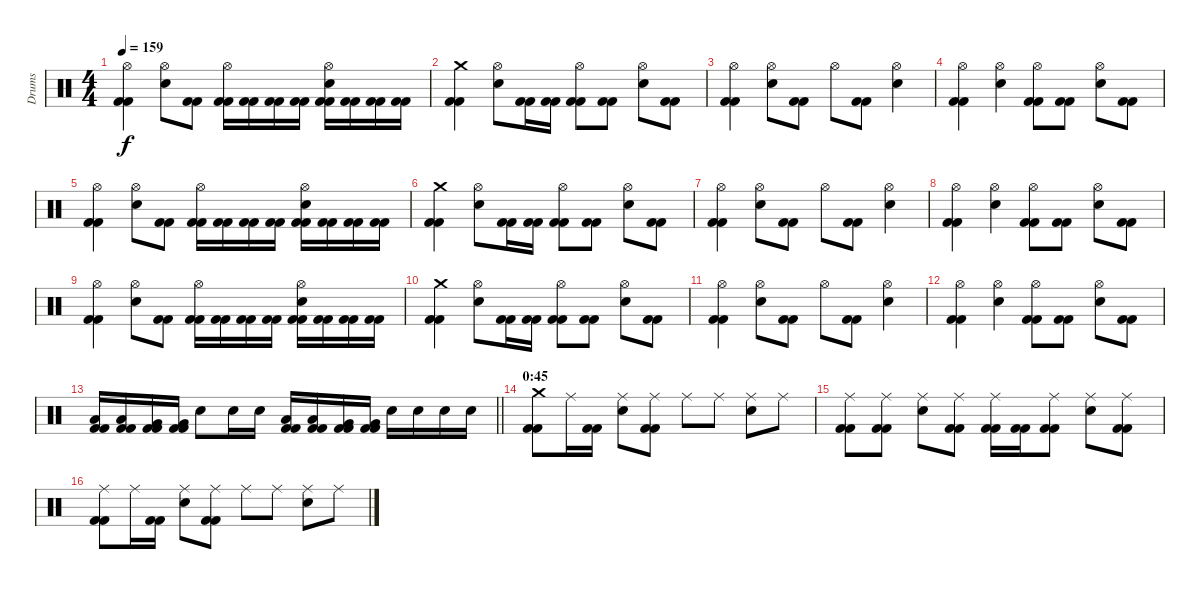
\track ("Drums" "Drums") {instrument percussion}
\staff {score}
\articulation defaults
\ts (4 4)
\tempo 159
\clef neutral
\ks c
("Hi-Hat (open)" "Kick (hit) 2" "Kick (hit) 2").4{dy f} ("Hi-Hat (open)" "Electric Snare (hit)").8 ("Kick (hit) 2" "Kick (hit) 2").8 ("Hi-Hat (open)" "Kick (hit) 2" "Kick (hit) 2").16 ("Kick (hit) 2" "Kick (hit) 2").16 ("Kick (hit) 2" "Kick (hit) 2").16 ("Kick (hit) 2" "Kick (hit) 2").16 ("Hi-Hat (open)" "Electric Snare (hit)" "Kick (hit) 2" "Kick (hit) 2").16 ("Kick (hit) 2" "Kick (hit) 2").16 ("Kick (hit) 2" "Kick (hit) 2").16 ("Kick (hit) 2" "Kick (hit) 2").16 |
("Crash medium (hit)" "Kick (hit) 2" "Kick (hit) 2").4 ("Hi-Hat (open)" "Electric Snare (hit)").8 ("Kick (hit) 2" "Kick (hit) 2").16 ("Kick (hit) 2" "Kick (hit) 2").16 ("Hi-Hat (open)" "Kick (hit) 2" "Kick (hit) 2").8 ("Kick (hit) 2" "Kick (hit) 2").8 ("Hi-Hat (open)" "Electric Snare (hit)").8 ("Kick (hit) 2" "Kick (hit) 2").8 |
("Hi-Hat (open)" "Kick (hit) 2" "Kick (hit) 2").4 ("Hi-Hat (open)" "Electric Snare (hit)").8 ("Kick (hit) 2" "Kick (hit) 2").8 "Hi-Hat (open)".8 ("Kick (hit) 2" "Kick (hit) 2").8 ("Hi-Hat (open)" "Electric Snare (hit)").4 |
("Hi-Hat (open)" "Kick (hit) 2" "Kick (hit) 2").4 ("Hi-Hat (open)" "Electric Snare (hit)").4 ("Hi-Hat (open)" "Kick (hit) 2" "Kick (hit) 2").8 ("Kick (hit) 2" "Kick (hit) 2").8 ("Hi-Hat (open)" "Electric Snare (hit)").8 ("Kick (hit) 2" "Kick (hit) 2").8 |
("Hi-Hat (open)" "Kick (hit) 2" "Kick (hit) 2").4 ("Hi-Hat (open)" "Electric Snare (hit)").8 ("Kick (hit) 2" "Kick (hit) 2").8 ("Hi-Hat (open)" "Kick (hit) 2" "Kick (hit) 2").16 ("Kick (hit) 2" "Kick (hit) 2").16 ("Kick (hit) 2" "Kick (hit) 2").16 ("Kick (hit) 2" "Kick (hit) 2").16 ("Hi-Hat (open)" "Electric Snare (hit)" "Kick (hit) 2" "Kick (hit) 2").16 ("Kick (hit) 2" "Kick (hit) 2").16 ("Kick (hit) 2" "Kick (hit) 2").16 ("Kick (hit) 2" "Kick (hit) 2").16 |
("Crash medium (hit)" "Kick (hit) 2" "Kick (hit) 2").4 ("Hi-Hat (open)" "Electric Snare (hit)").8 ("Kick (hit) 2" "Kick (hit) 2").16 ("Kick (hit) 2" "Kick (hit) 2").16 ("Hi-Hat (open)" "Kick (hit) 2" "Kick (hit) 2").8 ("Kick (hit) 2" "Kick (hit) 2").8 ("Hi-Hat (open)" "Electric Snare (hit)").8 ("Kick (hit) 2" "Kick (hit) 2").8 |
("Hi-Hat (open)" "Kick (hit) 2" "Kick (hit) 2").4 ("Hi-Hat (open)" "Electric Snare (hit)").8 ("Kick (hit) 2" "Kick (hit) 2").8 "Hi-Hat (open)".8 ("Kick (hit) 2" "Kick (hit) 2").8 ("Hi-Hat (open)" "Electric Snare (hit)").4 |
("Hi-Hat (open)" "Kick (hit) 2" "Kick (hit) 2").4 ("Hi-Hat (open)" "Electric Snare (hit)").4 ("Hi-Hat (open)" "Kick (hit) 2" "Kick (hit) 2").8 ("Kick (hit) 2" "Kick (hit) 2").8 ("Hi-Hat (open)" "Electric Snare (hit)").8 ("Kick (hit) 2" "Kick (hit) 2").8 |
("Hi-Hat (open)" "Kick (hit) 2" "Kick (hit) 2").4 ("Hi-Hat (open)" "Electric Snare (hit)").8 ("Kick (hit) 2" "Kick (hit) 2").8 ("Hi-Hat (open)" "Kick (hit) 2" "Kick (hit) 2").16 ("Kick (hit) 2" "Kick (hit) 2").16 ("Kick (hit) 2" "Kick (hit) 2").16 ("Kick (hit) 2" "Kick (hit) 2").16 ("Hi-Hat (open)" "Electric Snare (hit)" "Kick (hit) 2" "Kick (hit) 2").16 ("Kick (hit) 2" "Kick (hit) 2").16 ("Kick (hit) 2" "Kick (hit) 2").16 ("Kick (hit) 2" "Kick (hit) 2").16 |
("Crash medium (hit)" "Kick (hit) 2" "Kick (hit) 2").4 ("Hi-Hat (open)" "Electric Snare (hit)").8 ("Kick (hit) 2" "Kick (hit) 2").16 ("Kick (hit) 2" "Kick (hit) 2").16 ("Hi-Hat (open)" "Kick (hit) 2" "Kick (hit) 2").8 ("Kick (hit) 2" "Kick (hit) 2").8 ("Hi-Hat (open)" "Electric Snare (hit)").8 ("Kick (hit) 2" "Kick (hit) 2").8 |
("Hi-Hat (open)" "Kick (hit) 2" "Kick (hit) 2").4 ("Hi-Hat (open)" "Electric Snare (hit)").8 ("Kick (hit) 2" "Kick (hit) 2").8 "Hi-Hat (open)".8 ("Kick (hit) 2" "Kick (hit) 2").8 ("Hi-Hat (open)" "Electric Snare (hit)").4 |
("Hi-Hat (open)" "Kick (hit) 2" "Kick (hit) 2").4 ("Hi-Hat (open)" "Electric Snare (hit)").4 ("Hi-Hat (open)" "Kick (hit) 2" "Kick (hit) 2").8 ("Kick (hit) 2" "Kick (hit) 2").8 ("Hi-Hat (open)" "Electric Snare (hit)").8 ("Kick (hit) 2" "Kick (hit) 2").8 |
\barLineRight lightlight
("Low Tom (hit)" "Kick (hit) 2" "Kick (hit) 2").16 ("Low Tom (hit)" "Kick (hit) 2" "Kick (hit) 2").16 ("Very Low Tom (hit)" "Kick (hit) 2" "Kick (hit) 2").16 ("Very Low Tom (hit)" "Kick (hit) 2" "Kick (hit) 2").16 "Electric Snare (hit)".8 "Electric Snare (hit)".16 "Electric Snare (hit)".16 ("Low Tom (hit)" "Kick (hit) 2" "Kick (hit) 2").16 ("Low Tom (hit)" "Kick (hit) 2" "Kick (hit) 2").16 ("Very Low Tom (hit)" "Kick (hit) 2" "Kick (hit) 2").16 ("Very Low Tom (hit)" "Kick (hit) 2" "Kick (hit) 2").16 "Electric Snare (hit)".16 "Electric Snare (hit)".16 "Electric Snare (hit)".16 "Electric Snare (hit)".16 |
\section ("" "0:45")
("Crash medium (hit)" "Kick (hit) 2" "Kick (hit) 2").8 "Ride (middle)".16 ("Kick (hit) 2" "Kick (hit) 2").16 ("Ride (middle)" "Electric Snare (hit)").8 ("Ride (middle)" "Kick (hit) 2" "Kick (hit) 2").8 "Ride (middle)".8 "Ride (middle)".8 ("Ride (middle)" "Electric Snare (hit)").8 "Ride (middle)".8 |
("Ride (middle)" "Kick (hit) 2" "Kick (hit) 2").8 ("Ride (middle)" "Kick (hit) 2" "Kick (hit) 2").8 ("Ride (middle)" "Electric Snare (hit)").8 ("Ride (middle)" "Kick (hit) 2" "Kick (hit) 2").8 ("Ride (middle)" "Kick (hit) 2" "Kick (hit) 2").16 ("Kick (hit) 2" "Kick (hit) 2").16 ("Ride (middle)" "Kick (hit) 2" "Kick (hit) 2").8 ("Ride (middle)" "Electric Snare (hit)").8 ("Ride (middle)" "Kick (hit) 2" "Kick (hit) 2").8 |
("Ride (middle)" "Kick (hit) 2" "Kick (hit) 2").8 "Ride (middle)".16 ("Kick (hit) 2" "Kick (hit) 2").16 ("Ride (middle)" "Electric Snare (hit)").8 ("Ride (middle)" "Kick (hit) 2" "Kick (hit) 2").8 "Ride (middle)".8 "Ride (middle)".8 ("Ride (middle)" "Electric Snare (hit)").8 "Ride (middle)".8
